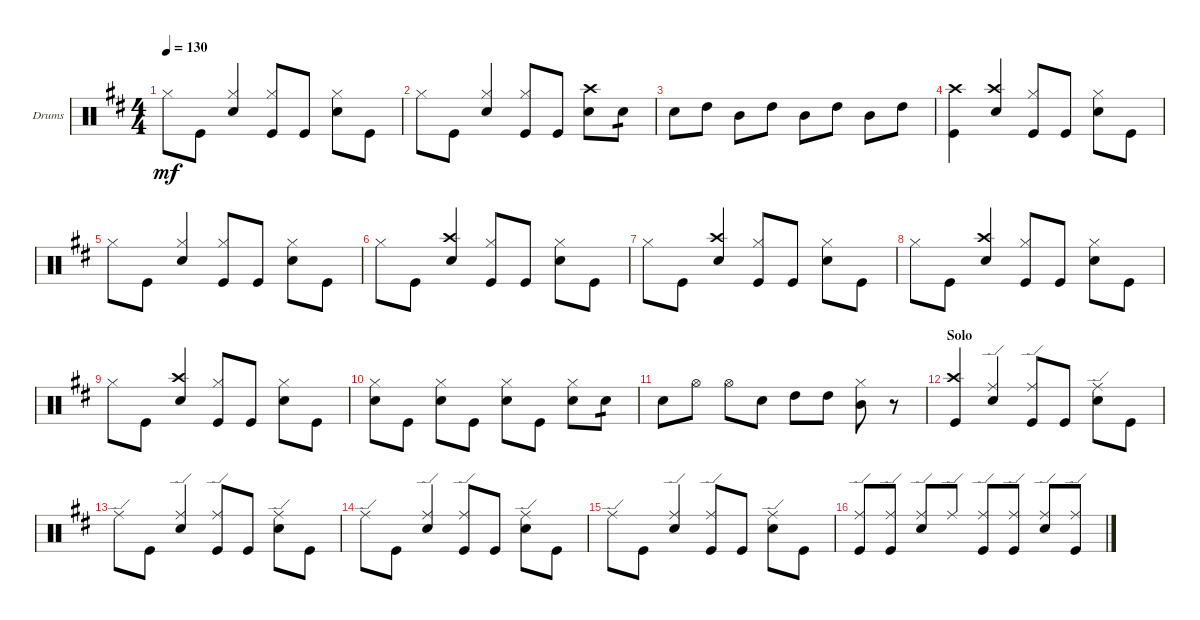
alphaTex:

\defaultSystemsLayout 4
\bracketExtendMode groupsimilarinstruments
\firstSystemTrackNameOrientation horizontal
\otherSystemsTrackNameOrientation horizontal
\track ("PETER CRISS" "Drums") {instrument percussion}
\staff {score}
\articulation defaults
\ts (4 4)
\tempo 130
\clef neutral
\scale
0.333333
\ks d "Hi-Hat (closed)".8{dy mf} "Kick (hit)".8
("Snare (hit) 2" "Hi-Hat (closed)").4 ("Kick (hit)" "Hi-Hat (closed)").8{beam invert} "Kick (hit)".8 ("Snare (hit) 2" "Hi-Hat (closed)").8 "Kick (hit)".8 |
\scale
0.333333 "Hi-Hat (closed)".8 "Kick (hit)".8 ("Snare (hit) 2" "Hi-Hat (closed)").4 ("Kick (hit)" "Hi-Hat (closed)").8{beam invert} "Kick (hit)".8 ("Snare (hit) 2" "Crash high (hit)").8 "Snare (hit) 2".8{tp 1} |
\scale
0.333333 "Snare (hit) 2".8 "High Tom (hit)".8 "Mid Tom (hit)".8 "High Tom (hit)".8 "Mid Tom (hit)".8 "High Tom (hit)".8 "Mid Tom (hit)".8 "High Tom (hit)".8 |
\scale
0.333333 ("Crash high (hit)" "Kick (hit)").4 ("Snare (hit) 2" "Crash high (hit)").4 ("Kick (hit)" "Hi-Hat (closed)").8{beam invert} "Kick (hit)".8 ("Snare (hit) 2" "Hi-Hat (closed)").8 "Kick (hit)".8 |
\scale
0.333333 "Hi-Hat (closed)".8 "Kick (hit)".8 ("Snare (hit) 2" "Hi-Hat (closed)").4 ("Kick (hit)" "Hi-Hat (closed)").8{beam invert} "Kick (hit)".8 ("Snare (hit) 2" "Hi-Hat (closed)").8 "Kick (hit)".8 |
\scale
0.333333 "Hi-Hat (closed)".8 "Kick (hit)".8 ("Snare (hit) 2" "Crash high (hit)").4 ("Kick (hit)" "Hi-Hat (closed)").8{beam invert} "Kick (hit)".8 ("Snare (hit) 2" "Hi-Hat (closed)").8 "Kick (hit)".8 |
\scale
0.333333 "Hi-Hat (closed)".8 "Kick (hit)".8 ("Snare (hit) 2" "Crash high (hit)").4 ("Kick (hit)" "Hi-Hat (closed)").8{beam invert} "Kick (hit)".8 ("Snare (hit) 2" "Hi-Hat (closed)").8 "Kick (hit)".8 |
\scale
0.333333 "Hi-Hat (closed)".8 "Kick (hit)".8 ("Snare (hit) 2" "Crash high (hit)").4 ("Kick (hit)" "Hi-Hat (closed)").8{beam invert} "Kick (hit)".8 ("Snare (hit) 2" "Hi-Hat (closed)").8 "Kick (hit)".8 |
\scale
0.333333 "Hi-Hat (closed)".8 "Kick (hit)".8 ("Snare (hit) 2" "Crash high (hit)").4 ("Kick (hit)" "Hi-Hat (closed)").8{beam invert} "Kick (hit)".8 ("Snare (hit) 2" "Hi-Hat (closed)").8 "Kick (hit)".8 |
\scale
0.333333 ("Hi-Hat (closed)" "Snare (hit) 2").8 "Kick (hit)".8 ("Hi-Hat (closed)" "Snare (hit) 2").8 "Kick (hit)".8 ("Hi-Hat (closed)" "Snare (hit) 2").8 "Kick (hit)".8 ("Snare (hit) 2" "Hi-Hat (closed)").8 "Snare (hit) 2".8{tp 1} |
\scale
0.333333 "Snare (hit) 2".8 "Hi-Hat (open)".8 "Hi-Hat (open)".8 "Snare (hit) 2".8 "High Tom (hit)".8 "High Tom (hit)".8 ("Mid Tom (hit)" "Hi-Hat (closed)").8 r.8 |
\section ("" "Solo")
\scale
0.333333 ("Crash high (hit)" "Kick (hit)").4{beam invert} ("Ride (edge)" "Snare (hit) 2").4 ("Ride (edge)" "Kick (hit)").8{beam invert} "Kick (hit)".8 ("Snare (hit) 2" "Ride (edge)").8 "Kick (hit)".8 |
\scale
0.333333 "Ride (edge)".8 "Kick (hit)".8 ("Snare (hit) 2" "Ride (edge)").4 ("Ride (edge)" "Kick (hit)").8{beam invert} "Kick (hit)".8 ("Ride (edge)" "Snare (hit) 2").8 "Kick (hit)".8 |
\scale
0.333333 "Ride (edge)".8 "Kick (hit)".8 ("Snare (hit) 2" "Ride (edge)").4 ("Ride (edge)" "Kick (hit)").8{beam invert} "Kick (hit)".8 ("Ride (edge)" "Snare (hit) 2").8 "Kick (hit)".8 |
\scale
0.333333 "Ride (edge)".8 "Kick (hit)".8 ("Snare (hit) 2" "Ride (edge)").4 ("Ride (edge)" "Kick (hit)").8{beam invert} "Kick (hit)".8 ("Ride (edge)" "Snare (hit) 2").8 "Kick (hit)".8 |
\scale
0.333333 ("Ride (edge)" "Kick (hit)").8{beam invert} ("Ride (edge)" "Kick (hit)").8 ("Snare (hit) 2" "Ride (edge)").8 "Ride (edge)".8 ("Ride (edge)" "Kick (hit)").8{beam invert} ("Kick (hit)" "Ride (edge)").8 ("Snare (hit) 2" "Ride (edge)").8{beam invert} ("Ride (edge)" "Kick (hit)").8
